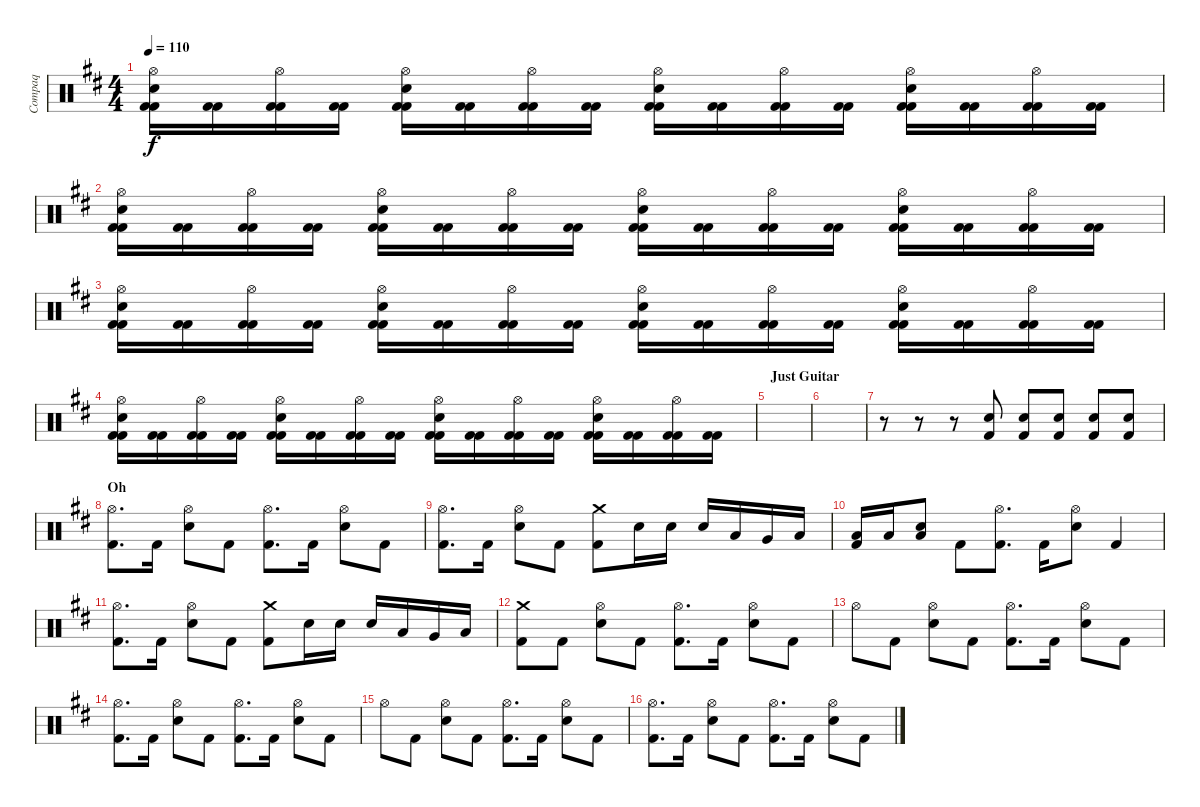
\track ("Compaq" "Compaq") {instrument percussion}
\staff {score}
\articulation defaults
\ts (4 4)
\tempo 110
\clef neutral
\ks bminor
("Electric Snare (hit)" "Kick (hit) 2" "Hi-Hat (open)" "Kick (hit) 2").16{dy f} ("Kick (hit) 2" "Kick (hit) 2").16 ("Kick (hit) 2" "Hi-Hat (open)" "Kick (hit) 2").16 ("Kick (hit) 2" "Kick (hit) 2").16 ("Electric Snare (hit)" "Kick (hit) 2" "Hi-Hat (open)" "Kick (hit) 2").16 ("Kick (hit) 2" "Kick (hit) 2").16 ("Kick (hit) 2" "Hi-Hat (open)" "Kick (hit) 2").16 ("Kick (hit) 2" "Kick (hit) 2").16 ("Electric Snare (hit)" "Kick (hit) 2" "Hi-Hat (open)" "Kick (hit) 2").16 ("Kick (hit) 2" "Kick (hit) 2").16 ("Kick (hit) 2" "Hi-Hat (open)" "Kick (hit) 2").16 ("Kick (hit) 2" "Kick (hit) 2").16 ("Electric Snare (hit)" "Kick (hit) 2" "Hi-Hat (open)" "Kick (hit) 2").16 ("Kick (hit) 2" "Kick (hit) 2").16 ("Kick (hit) 2" "Hi-Hat (open)" "Kick (hit) 2").16 ("Kick (hit) 2" "Kick (hit) 2").16 |
("Electric Snare (hit)" "Kick (hit) 2" "Hi-Hat (open)" "Kick (hit) 2").16 ("Kick (hit) 2" "Kick (hit) 2").16 ("Kick (hit) 2" "Hi-Hat (open)" "Kick (hit) 2").16 ("Kick (hit) 2" "Kick (hit) 2").16 ("Electric Snare (hit)" "Kick (hit) 2" "Hi-Hat (open)" "Kick (hit) 2").16 ("Kick (hit) 2" "Kick (hit) 2").16 ("Kick (hit) 2" "Hi-Hat (open)" "Kick (hit) 2").16 ("Kick (hit) 2" "Kick (hit) 2").16 ("Electric Snare (hit)" "Kick (hit) 2" "Hi-Hat (open)" "Kick (hit) 2").16 ("Kick (hit) 2" "Kick (hit) 2").16 ("Kick (hit) 2" "Hi-Hat (open)" "Kick (hit) 2").16 ("Kick (hit) 2" "Kick (hit) 2").16 ("Electric Snare (hit)" "Kick (hit) 2" "Hi-Hat (open)" "Kick (hit) 2").16 ("Kick (hit) 2" "Kick (hit) 2").16 ("Kick (hit) 2" "Hi-Hat (open)" "Kick (hit) 2").16 ("Kick (hit) 2" "Kick (hit) 2").16 |
("Electric Snare (hit)" "Kick (hit) 2" "Hi-Hat (open)" "Kick (hit) 2").16 ("Kick (hit) 2" "Kick (hit) 2").16 ("Kick (hit) 2" "Hi-Hat (open)" "Kick (hit) 2").16 ("Kick (hit) 2" "Kick (hit) 2").16 ("Electric Snare (hit)" "Kick (hit) 2" "Hi-Hat (open)" "Kick (hit) 2").16 ("Kick (hit) 2" "Kick (hit) 2").16 ("Kick (hit) 2" "Hi-Hat (open)" "Kick (hit) 2").16 ("Kick (hit) 2" "Kick (hit) 2").16 ("Electric Snare (hit)" "Kick (hit) 2" "Hi-Hat (open)" "Kick (hit) 2").16 ("Kick (hit) 2" "Kick (hit) 2").16 ("Kick (hit) 2" "Hi-Hat (open)" "Kick (hit) 2").16 ("Kick (hit) 2" "Kick (hit) 2").16 ("Electric Snare (hit)" "Kick (hit) 2" "Hi-Hat (open)" "Kick (hit) 2").16 ("Kick (hit) 2" "Kick (hit) 2").16 ("Kick (hit) 2" "Hi-Hat (open)" "Kick (hit) 2").16 ("Kick (hit) 2" "Kick (hit) 2").16 |
("Electric Snare (hit)" "Kick (hit) 2" "Hi-Hat (open)" "Kick (hit) 2").16 ("Kick (hit) 2" "Kick (hit) 2").16 ("Kick (hit) 2" "Hi-Hat (open)" "Kick (hit) 2").16 ("Kick (hit) 2" "Kick (hit) 2").16 ("Electric Snare (hit)" "Kick (hit) 2" "Hi-Hat (open)" "Kick (hit) 2").16 ("Kick (hit) 2" "Kick (hit) 2").16 ("Kick (hit) 2" "Hi-Hat (open)" "Kick (hit) 2").16 ("Kick (hit) 2" "Kick (hit) 2").16 ("Electric Snare (hit)" "Kick (hit) 2" "Hi-Hat (open)" "Kick (hit) 2").16 ("Kick (hit) 2" "Kick (hit) 2").16{volume 0} ("Kick (hit) 2" "Hi-Hat (open)" "Kick (hit) 2").16 ("Kick (hit) 2" "Kick (hit) 2").16 ("Electric Snare (hit)" "Kick (hit) 2" "Hi-Hat (open)" "Kick (hit) 2").16 ("Kick (hit) 2" "Kick (hit) 2").16 ("Kick (hit) 2" "Hi-Hat (open)" "Kick (hit) 2").16 ("Kick (hit) 2" "Kick (hit) 2").16 |
\section ("" "Just Guitar")
|
|
r.8{volume 4} r.8 r.8 ("Kick (hit) 2" "Electric Snare (hit)").8{volume 12} ("Kick (hit) 2" "Electric Snare (hit)").8 ("Kick (hit) 2" "Electric Snare (hit)").8 ("Kick (hit) 2" "Electric Snare (hit)").8 ("Kick (hit) 2" "Electric Snare (hit)").8 |
\section ("" "Oh")
("Hi-Hat (open)" "Kick (hit) 2").8{d} "Kick (hit) 2".16 ("Hi-Hat (open)" "Electric Snare (hit)").8 "Kick (hit) 2".8 ("Hi-Hat (open)" "Kick (hit) 2").8{d} "Kick (hit) 2".16 ("Hi-Hat (open)" "Electric Snare (hit)").8 "Kick (hit) 2".8 |
("Hi-Hat (open)" "Kick (hit) 2").8{d} "Kick (hit) 2".16 ("Hi-Hat (open)" "Electric Snare (hit)").8 "Kick (hit) 2".8 ("Crash medium (hit)" "Kick (hit) 2").8 "Electric Snare (hit)".16{volume 16} "Electric Snare (hit)".16 "Electric Snare (hit)".16 "Low Tom (hit)".16 "Very Low Tom (hit)".16 "Low Floor Tom (hit)".16 |
("Low Floor Tom (hit)" "Kick (hit) 2").16 "Low Floor Tom (hit)".16{volume 12} ("Low Floor Tom (hit)" "Electric Snare (hit)").8 "Kick (hit) 2".8 ("Hi-Hat (open)" "Kick (hit) 2").8{d} "Kick (hit) 2".16 ("Hi-Hat (open)" "Electric Snare (hit)").8 "Kick (hit) 2".4 |
("Hi-Hat (open)" "Kick (hit) 2").8{d} "Kick (hit) 2".16 ("Hi-Hat (open)" "Electric Snare (hit)").8 "Kick (hit) 2".8 ("Crash medium (hit)" "Kick (hit) 2").8 "Electric Snare (hit)".16 "Electric Snare (hit)".16 "Electric Snare (hit)".16 "Low Tom (hit)".16 "Very Low Tom (hit)".16 "Low Floor Tom (hit)".16 |
("Crash medium (hit)" "Kick (hit) 2").8 "Kick (hit) 2".8 ("Hi-Hat (open)" "Electric Snare (hit)").8 "Kick (hit) 2".8 ("Hi-Hat (open)" "Kick (hit) 2").8{d} "Kick (hit) 2".16 ("Hi-Hat (open)" "Electric Snare (hit)").8 "Kick (hit) 2".8 |
"Hi-Hat (open)".8 "Kick (hit) 2".8 ("Hi-Hat (open)" "Electric Snare (hit)").8 "Kick (hit) 2".8 ("Hi-Hat (open)" "Kick (hit) 2").8{d} "Kick (hit) 2".16 ("Hi-Hat (open)" "Electric Snare (hit)").8 "Kick (hit) 2".8 |
("Hi-Hat (open)" "Kick (hit) 2").8{d} "Kick (hit) 2".16 ("Hi-Hat (open)" "Electric Snare (hit)").8 "Kick (hit) 2".8 ("Hi-Hat (open)" "Kick (hit) 2").8{d} "Kick (hit) 2".16 ("Hi-Hat (open)" "Electric Snare (hit)").8 "Kick (hit) 2".8 |
"Hi-Hat (open)".8 "Kick (hit) 2".8 ("Hi-Hat (open)" "Electric Snare (hit)").8 "Kick (hit) 2".8 ("Hi-Hat (open)" "Kick (hit) 2").8{d} "Kick (hit) 2".16 ("Hi-Hat (open)" "Electric Snare (hit)").8 "Kick (hit) 2".8 |
("Hi-Hat (open)" "Kick (hit) 2").8{d} "Kick (hit) 2".16 ("Hi-Hat (open)" "Electric Snare (hit)").8 "Kick (hit) 2".8 ("Hi-Hat (open)" "Kick (hit) 2").8{d} "Kick (hit) 2".16 ("Hi-Hat (open)" "Electric Snare (hit)").8 "Kick (hit) 2".8
